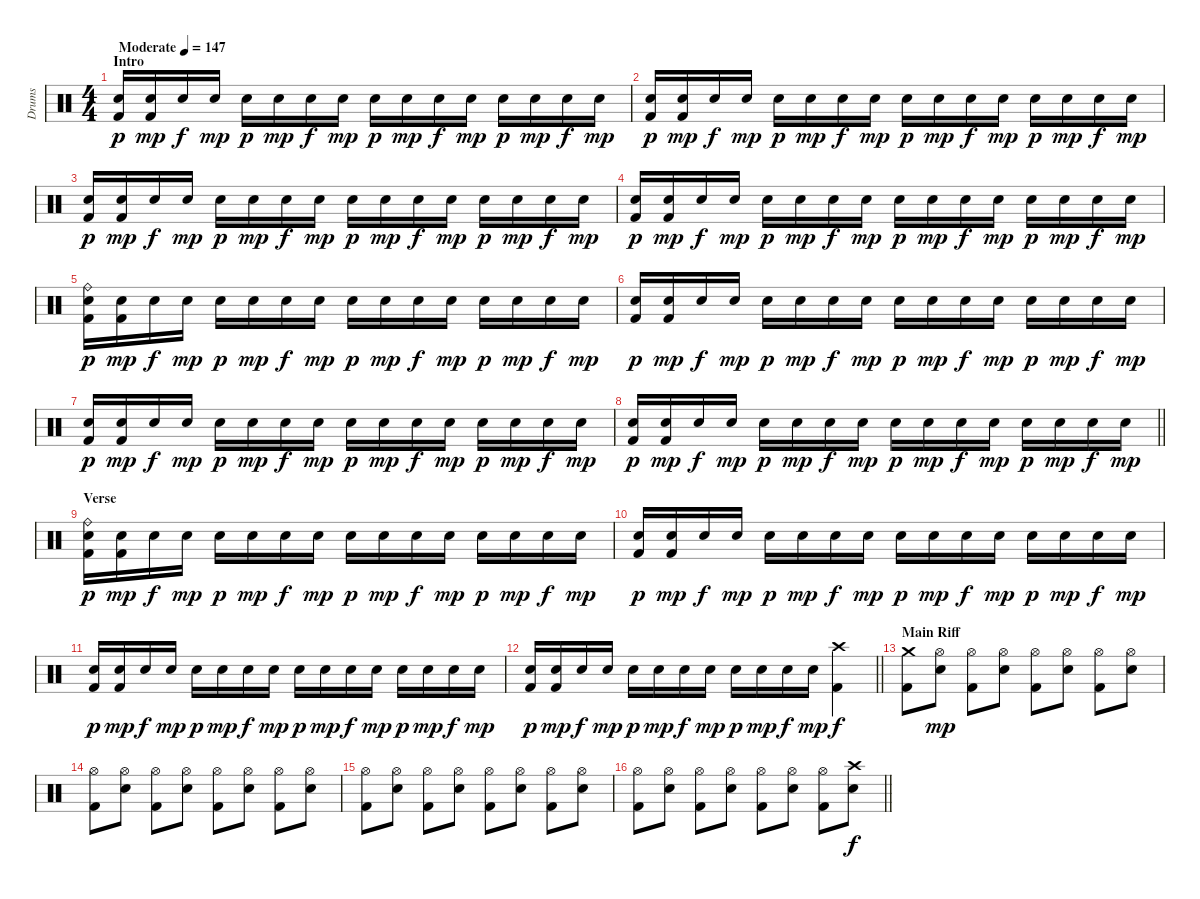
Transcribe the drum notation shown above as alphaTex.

\track ("Drums" "Drums") {instrument percussion}
\staff {score}
\articulation defaults
\ts (4 4)
\section ("" "Intro")
\tempo (147 "Moderate")
\clef neutral
\ks c
("Snare (hit) 2" "Kick (hit) 2").16{dy p} ("Snare (hit) 2" "Kick (hit) 2").16{dy mp} "Snare (hit) 2".16{dy f} "Snare (hit) 2".16{dy mp} "Snare (hit) 2".16{dy p} "Snare (hit) 2".16{dy mp} "Snare (hit) 2".16{dy f} "Snare (hit) 2".16{dy mp} "Snare (hit) 2".16{dy p} "Snare (hit) 2".16{dy mp} "Snare (hit) 2".16{dy f} "Snare (hit) 2".16{dy mp} "Snare (hit) 2".16{dy p} "Snare (hit) 2".16{dy mp} "Snare (hit) 2".16{dy f} "Snare (hit) 2".16{dy mp} |
("Snare (hit) 2" "Kick (hit) 2").16{dy p} ("Snare (hit) 2" "Kick (hit) 2").16{dy mp} "Snare (hit) 2".16{dy f} "Snare (hit) 2".16{dy mp} "Snare (hit) 2".16{dy p} "Snare (hit) 2".16{dy mp} "Snare (hit) 2".16{dy f} "Snare (hit) 2".16{dy mp} "Snare (hit) 2".16{dy p} "Snare (hit) 2".16{dy mp} "Snare (hit) 2".16{dy f} "Snare (hit) 2".16{dy mp} "Snare (hit) 2".16{dy p} "Snare (hit) 2".16{dy mp} "Snare (hit) 2".16{dy f} "Snare (hit) 2".16{dy mp} |
("Snare (hit) 2" "Kick (hit) 2").16{dy p} ("Snare (hit) 2" "Kick (hit) 2").16{dy mp} "Snare (hit) 2".16{dy f} "Snare (hit) 2".16{dy mp} "Snare (hit) 2".16{dy p} "Snare (hit) 2".16{dy mp} "Snare (hit) 2".16{dy f} "Snare (hit) 2".16{dy mp} "Snare (hit) 2".16{dy p} "Snare (hit) 2".16{dy mp} "Snare (hit) 2".16{dy f} "Snare (hit) 2".16{dy mp} "Snare (hit) 2".16{dy p} "Snare (hit) 2".16{dy mp} "Snare (hit) 2".16{dy f} "Snare (hit) 2".16{dy mp} |
("Snare (hit) 2" "Kick (hit) 2").16{dy p} ("Snare (hit) 2" "Kick (hit) 2").16{dy mp} "Snare (hit) 2".16{dy f} "Snare (hit) 2".16{dy mp} "Snare (hit) 2".16{dy p} "Snare (hit) 2".16{dy mp} "Snare (hit) 2".16{dy f} "Snare (hit) 2".16{dy mp} "Snare (hit) 2".16{dy p} "Snare (hit) 2".16{dy mp} "Snare (hit) 2".16{dy f} "Snare (hit) 2".16{dy mp} "Snare (hit) 2".16{dy p} "Snare (hit) 2".16{dy mp} "Snare (hit) 2".16{dy f} "Snare (hit) 2".16{dy mp} |
("Ride (bell)" "Snare (hit) 2" "Kick (hit) 2").16{dy p} ("Snare (hit) 2" "Kick (hit) 2").16{dy mp} "Snare (hit) 2".16{dy f} "Snare (hit) 2".16{dy mp} "Snare (hit) 2".16{dy p} "Snare (hit) 2".16{dy mp} "Snare (hit) 2".16{dy f} "Snare (hit) 2".16{dy mp} "Snare (hit) 2".16{dy p} "Snare (hit) 2".16{dy mp} "Snare (hit) 2".16{dy f} "Snare (hit) 2".16{dy mp} "Snare (hit) 2".16{dy p} "Snare (hit) 2".16{dy mp} "Snare (hit) 2".16{dy f} "Snare (hit) 2".16{dy mp} |
("Snare (hit) 2" "Kick (hit) 2").16{dy p} ("Snare (hit) 2" "Kick (hit) 2").16{dy mp} "Snare (hit) 2".16{dy f} "Snare (hit) 2".16{dy mp} "Snare (hit) 2".16{dy p} "Snare (hit) 2".16{dy mp} "Snare (hit) 2".16{dy f} "Snare (hit) 2".16{dy mp} "Snare (hit) 2".16{dy p} "Snare (hit) 2".16{dy mp} "Snare (hit) 2".16{dy f} "Snare (hit) 2".16{dy mp} "Snare (hit) 2".16{dy p} "Snare (hit) 2".16{dy mp} "Snare (hit) 2".16{dy f} "Snare (hit) 2".16{dy mp} |
("Snare (hit) 2" "Kick (hit) 2").16{dy p} ("Snare (hit) 2" "Kick (hit) 2").16{dy mp} "Snare (hit) 2".16{dy f} "Snare (hit) 2".16{dy mp} "Snare (hit) 2".16{dy p} "Snare (hit) 2".16{dy mp} "Snare (hit) 2".16{dy f} "Snare (hit) 2".16{dy mp} "Snare (hit) 2".16{dy p} "Snare (hit) 2".16{dy mp} "Snare (hit) 2".16{dy f} "Snare (hit) 2".16{dy mp} "Snare (hit) 2".16{dy p} "Snare (hit) 2".16{dy mp} "Snare (hit) 2".16{dy f} "Snare (hit) 2".16{dy mp} |
\barLineRight lightlight
("Snare (hit) 2" "Kick (hit) 2").16{dy p} ("Snare (hit) 2" "Kick (hit) 2").16{dy mp} "Snare (hit) 2".16{dy f} "Snare (hit) 2".16{dy mp} "Snare (hit) 2".16{dy p} "Snare (hit) 2".16{dy mp} "Snare (hit) 2".16{dy f} "Snare (hit) 2".16{dy mp} "Snare (hit) 2".16{dy p} "Snare (hit) 2".16{dy mp} "Snare (hit) 2".16{dy f} "Snare (hit) 2".16{dy mp} "Snare (hit) 2".16{dy p} "Snare (hit) 2".16{dy mp} "Snare (hit) 2".16{dy f} "Snare (hit) 2".16{dy mp} |
\section ("" "Verse")
("Ride (bell)" "Snare (hit) 2" "Kick (hit) 2").16{dy p} ("Snare (hit) 2" "Kick (hit) 2").16{dy mp} "Snare (hit) 2".16{dy f} "Snare (hit) 2".16{dy mp} "Snare (hit) 2".16{dy p} "Snare (hit) 2".16{dy mp} "Snare (hit) 2".16{dy f} "Snare (hit) 2".16{dy mp} "Snare (hit) 2".16{dy p} "Snare (hit) 2".16{dy mp} "Snare (hit) 2".16{dy f} "Snare (hit) 2".16{dy mp} "Snare (hit) 2".16{dy p} "Snare (hit) 2".16{dy mp} "Snare (hit) 2".16{dy f} "Snare (hit) 2".16{dy mp} |
("Snare (hit) 2" "Kick (hit) 2").16{dy p} ("Snare (hit) 2" "Kick (hit) 2").16{dy mp} "Snare (hit) 2".16{dy f} "Snare (hit) 2".16{dy mp} "Snare (hit) 2".16{dy p} "Snare (hit) 2".16{dy mp} "Snare (hit) 2".16{dy f} "Snare (hit) 2".16{dy mp} "Snare (hit) 2".16{dy p} "Snare (hit) 2".16{dy mp} "Snare (hit) 2".16{dy f} "Snare (hit) 2".16{dy mp} "Snare (hit) 2".16{dy p} "Snare (hit) 2".16{dy mp} "Snare (hit) 2".16{dy f} "Snare (hit) 2".16{dy mp} |
("Snare (hit) 2" "Kick (hit) 2").16{dy p} ("Snare (hit) 2" "Kick (hit) 2").16{dy mp} "Snare (hit) 2".16{dy f} "Snare (hit) 2".16{dy mp} "Snare (hit) 2".16{dy p} "Snare (hit) 2".16{dy mp} "Snare (hit) 2".16{dy f} "Snare (hit) 2".16{dy mp} "Snare (hit) 2".16{dy p} "Snare (hit) 2".16{dy mp} "Snare (hit) 2".16{dy f} "Snare (hit) 2".16{dy mp} "Snare (hit) 2".16{dy p} "Snare (hit) 2".16{dy mp} "Snare (hit) 2".16{dy f} "Snare (hit) 2".16{dy mp} |
\barLineRight lightlight
("Snare (hit) 2" "Kick (hit) 2").16{dy p} ("Snare (hit) 2" "Kick (hit) 2").16{dy mp} "Snare (hit) 2".16{dy f} "Snare (hit) 2".16{dy mp} "Snare (hit) 2".16{dy p} "Snare (hit) 2".16{dy mp} "Snare (hit) 2".16{dy f} "Snare (hit) 2".16{dy mp} "Snare (hit) 2".16{dy p} "Snare (hit) 2".16{dy mp} "Snare (hit) 2".16{dy f} "Snare (hit) 2".16{dy mp} ("Crash high (hit)" "Kick (hit) 2").4{dy f} |
\section ("" "Main Riff")
("Crash medium (hit)" "Kick (hit) 2").8 ("Hi-Hat (open)" "Snare (hit) 2").8{dy mp} ("Hi-Hat (open)" "Kick (hit) 2").8 ("Hi-Hat (open)" "Snare (hit) 2").8 ("Hi-Hat (open)" "Kick (hit) 2").8 ("Hi-Hat (open)" "Snare (hit) 2").8 ("Hi-Hat (open)" "Kick (hit) 2").8 ("Hi-Hat (open)" "Snare (hit) 2").8 |
("Hi-Hat (open)" "Kick (hit) 2").8 ("Hi-Hat (open)" "Snare (hit) 2").8 ("Hi-Hat (open)" "Kick (hit) 2").8 ("Hi-Hat (open)" "Snare (hit) 2").8 ("Hi-Hat (open)" "Kick (hit) 2").8 ("Hi-Hat (open)" "Snare (hit) 2").8 ("Hi-Hat (open)" "Kick (hit) 2").8 ("Hi-Hat (open)" "Snare (hit) 2").8 |
("Hi-Hat (open)" "Kick (hit) 2").8 ("Hi-Hat (open)" "Snare (hit) 2").8 ("Hi-Hat (open)" "Kick (hit) 2").8 ("Hi-Hat (open)" "Snare (hit) 2").8 ("Hi-Hat (open)" "Kick (hit) 2").8 ("Hi-Hat (open)" "Snare (hit) 2").8 ("Hi-Hat (open)" "Kick (hit) 2").8 ("Hi-Hat (open)" "Snare (hit) 2").8 |
\barLineRight lightlight
("Hi-Hat (open)" "Kick (hit) 2").8 ("Hi-Hat (open)" "Snare (hit) 2").8 ("Hi-Hat (open)" "Kick (hit) 2").8 ("Hi-Hat (open)" "Snare (hit) 2").8 ("Hi-Hat (open)" "Kick (hit) 2").8 ("Hi-Hat (open)" "Snare (hit) 2").8 ("Hi-Hat (open)" "Kick (hit) 2").8 ("Crash high (hit)" "Snare (hit) 2").8{dy f}
